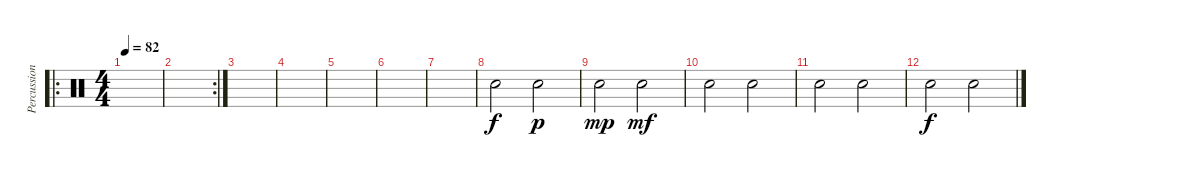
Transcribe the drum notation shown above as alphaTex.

\track ("Percussions" "Percussion") {instrument percussion}
\staff {score}
\articulation defaults
\ro
\ts (4 4)
\tempo 82
\clef neutral
\ks c
|
\rc 2
|
|
|
|
|
|
"Hand Clap (hit)".2 "Hand Clap (hit)".2{dy p} |
"Hand Clap (hit)".2{dy mp} "Hand Clap (hit)".2{dy mf} |
"Hand Clap (hit)".2 "Hand Clap (hit)".2 |
"Hand Clap (hit)".2 "Hand Clap (hit)".2 |
"Hand Clap (hit)".2{dy f} "Hand Clap (hit)".2
